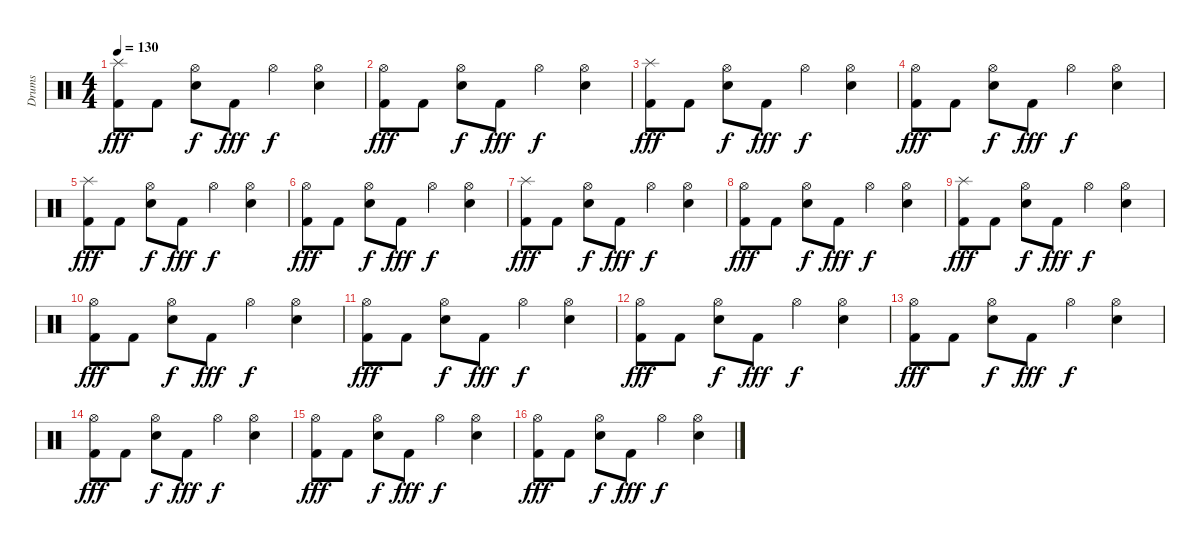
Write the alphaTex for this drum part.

\track ("Drums" "Drums") {instrument percussion}
\staff {score}
\articulation defaults
\ts (4 4)
\tempo 130
\clef neutral
\ks c
("Splash (hit)" "Kick (hit) 2").8{dy fff} "Kick (hit) 2".8 ("Hi-Hat (open)" "Snare (hit) 2").8{dy f} "Kick (hit) 2".8{dy fff} "Hi-Hat (open)".4{dy f} ("Hi-Hat (open)" "Snare (hit) 2").4 |
("Hi-Hat (open)" "Kick (hit) 2").8{dy fff} "Kick (hit) 2".8 ("Hi-Hat (open)" "Snare (hit) 2").8{dy f} "Kick (hit) 2".8{dy fff} "Hi-Hat (open)".4{dy f} ("Hi-Hat (open)" "Snare (hit) 2").4 |
("Splash (hit)" "Kick (hit) 2").8{dy fff} "Kick (hit) 2".8 ("Hi-Hat (open)" "Snare (hit) 2").8{dy f} "Kick (hit) 2".8{dy fff} "Hi-Hat (open)".4{dy f} ("Hi-Hat (open)" "Snare (hit) 2").4 |
("Hi-Hat (open)" "Kick (hit) 2").8{dy fff} "Kick (hit) 2".8 ("Hi-Hat (open)" "Snare (hit) 2").8{dy f} "Kick (hit) 2".8{dy fff} "Hi-Hat (open)".4{dy f} ("Hi-Hat (open)" "Snare (hit) 2").4 |
("Splash (hit)" "Kick (hit) 2").8{dy fff} "Kick (hit) 2".8 ("Hi-Hat (open)" "Snare (hit) 2").8{dy f} "Kick (hit) 2".8{dy fff} "Hi-Hat (open)".4{dy f} ("Hi-Hat (open)" "Snare (hit) 2").4 |
("Hi-Hat (open)" "Kick (hit) 2").8{dy fff} "Kick (hit) 2".8 ("Hi-Hat (open)" "Snare (hit) 2").8{dy f} "Kick (hit) 2".8{dy fff} "Hi-Hat (open)".4{dy f} ("Hi-Hat (open)" "Snare (hit) 2").4 |
("Splash (hit)" "Kick (hit) 2").8{dy fff} "Kick (hit) 2".8 ("Hi-Hat (open)" "Snare (hit) 2").8{dy f} "Kick (hit) 2".8{dy fff} "Hi-Hat (open)".4{dy f} ("Hi-Hat (open)" "Snare (hit) 2").4 |
("Hi-Hat (open)" "Kick (hit) 2").8{dy fff} "Kick (hit) 2".8 ("Hi-Hat (open)" "Snare (hit) 2").8{dy f} "Kick (hit) 2".8{dy fff} "Hi-Hat (open)".4{dy f} ("Hi-Hat (open)" "Snare (hit) 2").4 |
("Splash (hit)" "Kick (hit) 2").8{dy fff} "Kick (hit) 2".8 ("Hi-Hat (open)" "Snare (hit) 2").8{dy f} "Kick (hit) 2".8{dy fff} "Hi-Hat (open)".4{dy f} ("Hi-Hat (open)" "Snare (hit) 2").4 |
("Hi-Hat (open)" "Kick (hit) 2").8{dy fff} "Kick (hit) 2".8 ("Hi-Hat (open)" "Snare (hit) 2").8{dy f} "Kick (hit) 2".8{dy fff} "Hi-Hat (open)".4{dy f} ("Hi-Hat (open)" "Snare (hit) 2").4 |
("Hi-Hat (open)" "Kick (hit) 2").8{dy fff} "Kick (hit) 2".8 ("Hi-Hat (open)" "Snare (hit) 2").8{dy f} "Kick (hit) 2".8{dy fff} "Hi-Hat (open)".4{dy f} ("Hi-Hat (open)" "Snare (hit) 2").4 |
("Hi-Hat (open)" "Kick (hit) 2").8{dy fff} "Kick (hit) 2".8 ("Hi-Hat (open)" "Snare (hit) 2").8{dy f} "Kick (hit) 2".8{dy fff} "Hi-Hat (open)".4{dy f} ("Hi-Hat (open)" "Snare (hit) 2").4 |
("Hi-Hat (open)" "Kick (hit) 2").8{dy fff} "Kick (hit) 2".8 ("Hi-Hat (open)" "Snare (hit) 2").8{dy f} "Kick (hit) 2".8{dy fff} "Hi-Hat (open)".4{dy f} ("Hi-Hat (open)" "Snare (hit) 2").4 |
("Hi-Hat (open)" "Kick (hit) 2").8{dy fff} "Kick (hit) 2".8 ("Hi-Hat (open)" "Snare (hit) 2").8{dy f} "Kick (hit) 2".8{dy fff} "Hi-Hat (open)".4{dy f} ("Hi-Hat (open)" "Snare (hit) 2").4 |
("Hi-Hat (open)" "Kick (hit) 2").8{dy fff} "Kick (hit) 2".8 ("Hi-Hat (open)" "Snare (hit) 2").8{dy f} "Kick (hit) 2".8{dy fff} "Hi-Hat (open)".4{dy f} ("Hi-Hat (open)" "Snare (hit) 2").4 |
("Hi-Hat (open)" "Kick (hit) 2").8{dy fff} "Kick (hit) 2".8 ("Hi-Hat (open)" "Snare (hit) 2").8{dy f} "Kick (hit) 2".8{dy fff} "Hi-Hat (open)".4{dy f} ("Hi-Hat (open)" "Snare (hit) 2").4
